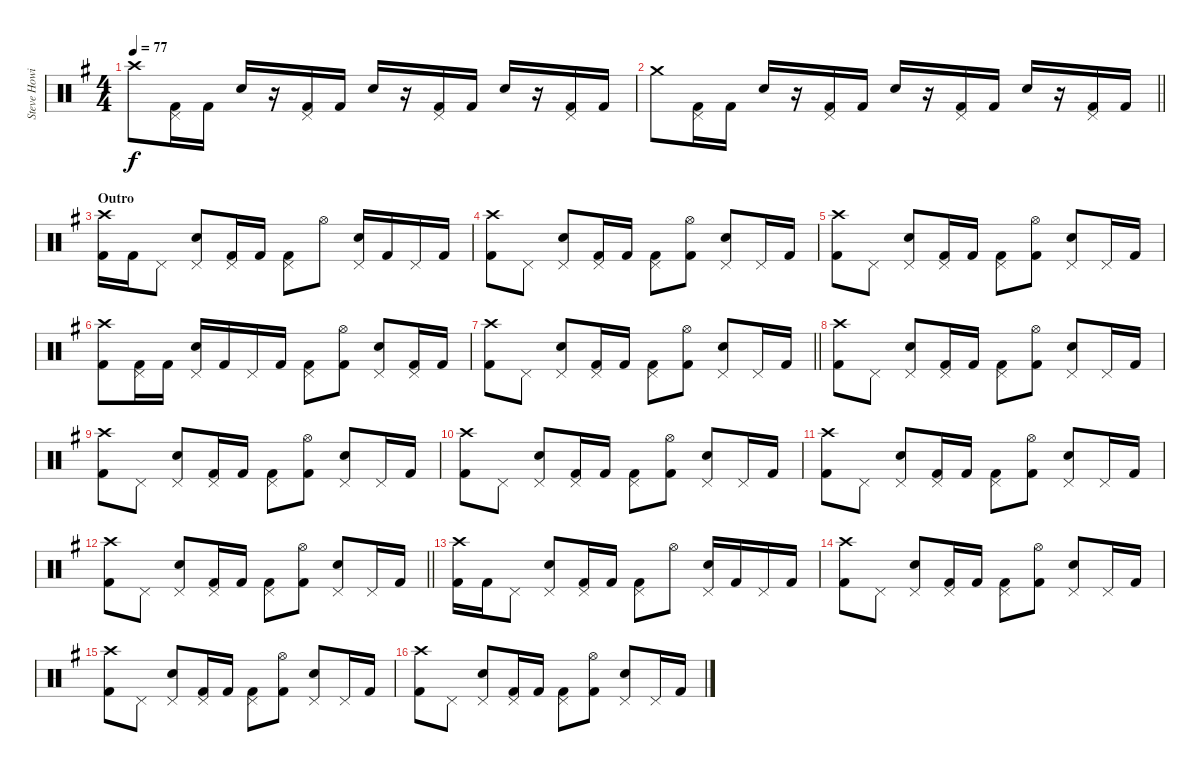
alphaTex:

\track ("Steve Howie" "Steve Howi") {instrument percussion}
\staff {score}
\articulation defaults
\ts (4 4)
\tempo 77
\clef neutral
\ks g "Crash high (hit)".8{dy f}
("Pedal Hi-Hat (hit)" "Kick (hit) 2").16 "Kick (hit) 2".16 "Electric Snare (hit)".16 r.16 ("Pedal Hi-Hat (hit)" "Kick (hit) 2").16 "Kick (hit) 2".16 "Electric Snare (hit)".16 r.16 ("Pedal Hi-Hat (hit)" "Kick (hit) 2").16 "Kick (hit) 2".16 "Electric Snare (hit)".16 r.16 ("Pedal Hi-Hat (hit)" "Kick (hit) 2").16 "Kick (hit) 2".16 |
\barLineRight lightlight "Crash medium (hit)".8
("Pedal Hi-Hat (hit)" "Kick (hit) 2").16 "Kick (hit) 2".16 "Electric Snare (hit)".16 r.16 ("Pedal Hi-Hat (hit)" "Kick (hit) 2").16 "Kick (hit) 2".16 "Electric Snare (hit)".16 r.16 ("Pedal Hi-Hat (hit)" "Kick (hit) 2").16 "Kick (hit) 2".16 "Electric Snare (hit)".16 r.16 ("Pedal Hi-Hat (hit)" "Kick (hit) 2").16 "Kick (hit) 2".16 |
\section ("" "Outro")
("Crash high (hit)" "Kick (hit) 2").16 "Kick (hit) 2".16 "Pedal Hi-Hat (hit)".8 ("Pedal Hi-Hat (hit)" "Electric Snare (hit)").8 ("Pedal Hi-Hat (hit)" "Kick (hit) 2").16 "Kick (hit) 2".16 ("Pedal Hi-Hat (hit)" "Kick (hit) 2").8 "Hi-Hat (open)".8 ("Pedal Hi-Hat (hit)" "Electric Snare (hit)").16 "Kick (hit) 2".16 "Pedal Hi-Hat (hit)".16 "Kick (hit) 2".16 |
("Crash high (hit)" "Kick (hit) 2").8 "Pedal Hi-Hat (hit)".8 ("Pedal Hi-Hat (hit)" "Electric Snare (hit)").8 ("Pedal Hi-Hat (hit)" "Kick (hit) 2").16 "Kick (hit) 2".16 ("Pedal Hi-Hat (hit)" "Kick (hit) 2").8 ("Hi-Hat (open)" "Kick (hit) 2").8 ("Pedal Hi-Hat (hit)" "Electric Snare (hit)").8 "Pedal Hi-Hat (hit)".16 "Kick (hit) 2".16 |
("Crash high (hit)" "Kick (hit) 2").8 "Pedal Hi-Hat (hit)".8 ("Pedal Hi-Hat (hit)" "Electric Snare (hit)").8 ("Pedal Hi-Hat (hit)" "Kick (hit) 2").16 "Kick (hit) 2".16 ("Pedal Hi-Hat (hit)" "Kick (hit) 2").8 ("Hi-Hat (open)" "Kick (hit) 2").8 ("Pedal Hi-Hat (hit)" "Electric Snare (hit)").8 "Pedal Hi-Hat (hit)".16 "Kick (hit) 2".16 |
("Crash high (hit)" "Kick (hit) 2").8 ("Pedal Hi-Hat (hit)" "Kick (hit) 2").16 "Kick (hit) 2".16 ("Pedal Hi-Hat (hit)" "Electric Snare (hit)").16 "Kick (hit) 2".16 "Pedal Hi-Hat (hit)".16 "Kick (hit) 2".16 ("Pedal Hi-Hat (hit)" "Kick (hit) 2").8 ("Hi-Hat (open)" "Kick (hit) 2").8 ("Pedal Hi-Hat (hit)" "Electric Snare (hit)").8 ("Pedal Hi-Hat (hit)" "Kick (hit) 2").16 "Kick (hit) 2".16 |
\barLineRight lightlight
("Crash high (hit)" "Kick (hit) 2").8 "Pedal Hi-Hat (hit)".8 ("Pedal Hi-Hat (hit)" "Electric Snare (hit)").8 ("Pedal Hi-Hat (hit)" "Kick (hit) 2").16 "Kick (hit) 2".16 ("Pedal Hi-Hat (hit)" "Kick (hit) 2").8 ("Hi-Hat (open)" "Kick (hit) 2").8 ("Pedal Hi-Hat (hit)" "Electric Snare (hit)").8 "Pedal Hi-Hat (hit)".16 "Kick (hit) 2".16 |
("Crash high (hit)" "Kick (hit) 2").8 "Pedal Hi-Hat (hit)".8 ("Pedal Hi-Hat (hit)" "Electric Snare (hit)").8 ("Pedal Hi-Hat (hit)" "Kick (hit) 2").16 "Kick (hit) 2".16 ("Pedal Hi-Hat (hit)" "Kick (hit) 2").8 ("Hi-Hat (open)" "Kick (hit) 2").8 ("Pedal Hi-Hat (hit)" "Electric Snare (hit)").8 "Pedal Hi-Hat (hit)".16 "Kick (hit) 2".16 |
("Crash high (hit)" "Kick (hit) 2").8{volume 3} "Pedal Hi-Hat (hit)".8 ("Pedal Hi-Hat (hit)" "Electric Snare (hit)").8 ("Pedal Hi-Hat (hit)" "Kick (hit) 2").16 "Kick (hit) 2".16 ("Pedal Hi-Hat (hit)" "Kick (hit) 2").8 ("Hi-Hat (open)" "Kick (hit) 2").8 ("Pedal Hi-Hat (hit)" "Electric Snare (hit)").8 "Pedal Hi-Hat (hit)".16 "Kick (hit) 2".16 |
("Crash high (hit)" "Kick (hit) 2").8 "Pedal Hi-Hat (hit)".8 ("Pedal Hi-Hat (hit)" "Electric Snare (hit)").8 ("Pedal Hi-Hat (hit)" "Kick (hit) 2").16 "Kick (hit) 2".16 ("Pedal Hi-Hat (hit)" "Kick (hit) 2").8 ("Hi-Hat (open)" "Kick (hit) 2").8 ("Pedal Hi-Hat (hit)" "Electric Snare (hit)").8 "Pedal Hi-Hat (hit)".16 "Kick (hit) 2".16 |
("Crash high (hit)" "Kick (hit) 2").8 "Pedal Hi-Hat (hit)".8 ("Pedal Hi-Hat (hit)" "Electric Snare (hit)").8 ("Pedal Hi-Hat (hit)" "Kick (hit) 2").16 "Kick (hit) 2".16 ("Pedal Hi-Hat (hit)" "Kick (hit) 2").8 ("Hi-Hat (open)" "Kick (hit) 2").8 ("Pedal Hi-Hat (hit)" "Electric Snare (hit)").8 "Pedal Hi-Hat (hit)".16 "Kick (hit) 2".16 |
\barLineRight lightlight
("Crash high (hit)" "Kick (hit) 2").8 "Pedal Hi-Hat (hit)".8 ("Pedal Hi-Hat (hit)" "Electric Snare (hit)").8 ("Pedal Hi-Hat (hit)" "Kick (hit) 2").16 "Kick (hit) 2".16 ("Pedal Hi-Hat (hit)" "Kick (hit) 2").8 ("Hi-Hat (open)" "Kick (hit) 2").8 ("Pedal Hi-Hat (hit)" "Electric Snare (hit)").8 "Pedal Hi-Hat (hit)".16 "Kick (hit) 2".16 |
("Crash high (hit)" "Kick (hit) 2").16{volume 0} "Kick (hit) 2".16 "Pedal Hi-Hat (hit)".8 ("Pedal Hi-Hat (hit)" "Electric Snare (hit)").8 ("Pedal Hi-Hat (hit)" "Kick (hit) 2").16 "Kick (hit) 2".16 ("Pedal Hi-Hat (hit)" "Kick (hit) 2").8 "Hi-Hat (open)".8 ("Pedal Hi-Hat (hit)" "Electric Snare (hit)").16 "Kick (hit) 2".16 "Pedal Hi-Hat (hit)".16 "Kick (hit) 2".16 |
("Crash high (hit)" "Kick (hit) 2").8 "Pedal Hi-Hat (hit)".8 ("Pedal Hi-Hat (hit)" "Electric Snare (hit)").8 ("Pedal Hi-Hat (hit)" "Kick (hit) 2").16 "Kick (hit) 2".16 ("Pedal Hi-Hat (hit)" "Kick (hit) 2").8 ("Hi-Hat (open)" "Kick (hit) 2").8 ("Pedal Hi-Hat (hit)" "Electric Snare (hit)").8 "Pedal Hi-Hat (hit)".16 "Kick (hit) 2".16 |
("Crash high (hit)" "Kick (hit) 2").8 "Pedal Hi-Hat (hit)".8 ("Pedal Hi-Hat (hit)" "Electric Snare (hit)").8 ("Pedal Hi-Hat (hit)" "Kick (hit) 2").16 "Kick (hit) 2".16 ("Pedal Hi-Hat (hit)" "Kick (hit) 2").8 ("Hi-Hat (open)" "Kick (hit) 2").8 ("Pedal Hi-Hat (hit)" "Electric Snare (hit)").8 "Pedal Hi-Hat (hit)".16 "Kick (hit) 2".16 |
("Crash high (hit)" "Kick (hit) 2").8 "Pedal Hi-Hat (hit)".8 ("Pedal Hi-Hat (hit)" "Electric Snare (hit)").8 ("Pedal Hi-Hat (hit)" "Kick (hit) 2").16 "Kick (hit) 2".16 ("Pedal Hi-Hat (hit)" "Kick (hit) 2").8 ("Hi-Hat (open)" "Kick (hit) 2").8 ("Pedal Hi-Hat (hit)" "Electric Snare (hit)").8 "Pedal Hi-Hat (hit)".16 "Kick (hit) 2".16
